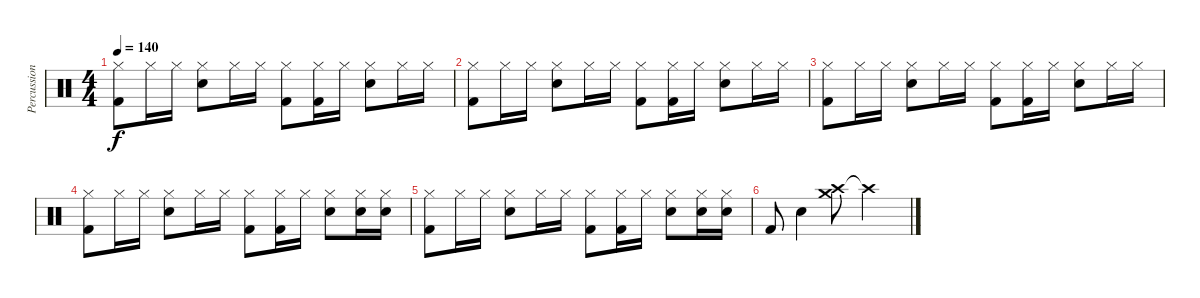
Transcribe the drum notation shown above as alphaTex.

\track ("Percussion" "Percussion") {instrument percussion}
\staff {score}
\articulation defaults
\ts (4 4)
\tempo 140
\clef neutral
\ks c
("Hi-Hat (closed)" "Kick (hit) 2").8{dy f} "Hi-Hat (closed)".16 "Hi-Hat (closed)".16 ("Hi-Hat (closed)" "Snare (hit) 2").8 "Hi-Hat (closed)".16 "Hi-Hat (closed)".16 ("Hi-Hat (closed)" "Kick (hit) 2").8 ("Hi-Hat (closed)" "Kick (hit) 2").16 "Hi-Hat (closed)".16 ("Hi-Hat (closed)" "Snare (hit) 2").8 "Hi-Hat (closed)".16 "Hi-Hat (closed)".16 |
("Hi-Hat (closed)" "Kick (hit) 2").8 "Hi-Hat (closed)".16 "Hi-Hat (closed)".16 ("Hi-Hat (closed)" "Snare (hit) 2").8 "Hi-Hat (closed)".16 "Hi-Hat (closed)".16 ("Hi-Hat (closed)" "Kick (hit) 2").8 ("Hi-Hat (closed)" "Kick (hit) 2").16 "Hi-Hat (closed)".16 ("Hi-Hat (closed)" "Snare (hit) 2").8 "Hi-Hat (closed)".16 "Hi-Hat (closed)".16 |
("Hi-Hat (closed)" "Kick (hit) 2").8 "Hi-Hat (closed)".16 "Hi-Hat (closed)".16 ("Hi-Hat (closed)" "Snare (hit) 2").8 "Hi-Hat (closed)".16 "Hi-Hat (closed)".16 ("Hi-Hat (closed)" "Kick (hit) 2").8 ("Hi-Hat (closed)" "Kick (hit) 2").16 "Hi-Hat (closed)".16 ("Hi-Hat (closed)" "Snare (hit) 2").8 "Hi-Hat (closed)".16 "Hi-Hat (closed)".16 |
("Hi-Hat (closed)" "Kick (hit) 2").8 "Hi-Hat (closed)".16 "Hi-Hat (closed)".16 ("Hi-Hat (closed)" "Snare (hit) 2").8 "Hi-Hat (closed)".16 "Hi-Hat (closed)".16 ("Hi-Hat (closed)" "Kick (hit) 2").8 ("Hi-Hat (closed)" "Kick (hit) 2").16 "Hi-Hat (closed)".16 ("Hi-Hat (closed)" "Snare (hit) 2").8 ("Hi-Hat (closed)" "Snare (hit) 2").16 ("Hi-Hat (closed)" "Snare (hit) 2").16 |
("Hi-Hat (closed)" "Kick (hit) 2").8 "Hi-Hat (closed)".16 "Hi-Hat (closed)".16 ("Hi-Hat (closed)" "Snare (hit) 2").8 "Hi-Hat (closed)".16 "Hi-Hat (closed)".16 ("Hi-Hat (closed)" "Kick (hit) 2").8 ("Hi-Hat (closed)" "Kick (hit) 2").16 "Hi-Hat (closed)".16 ("Hi-Hat (closed)" "Snare (hit) 2").8 ("Hi-Hat (closed)" "Snare (hit) 2").16 ("Hi-Hat (closed)" "Snare (hit) 2").16 |
"Kick (hit) 2".8 "Snare (hit) 2".4 ("Crash high (hit)" "Crash medium (hit)").8 "Crash high (hit)"{t}.2
